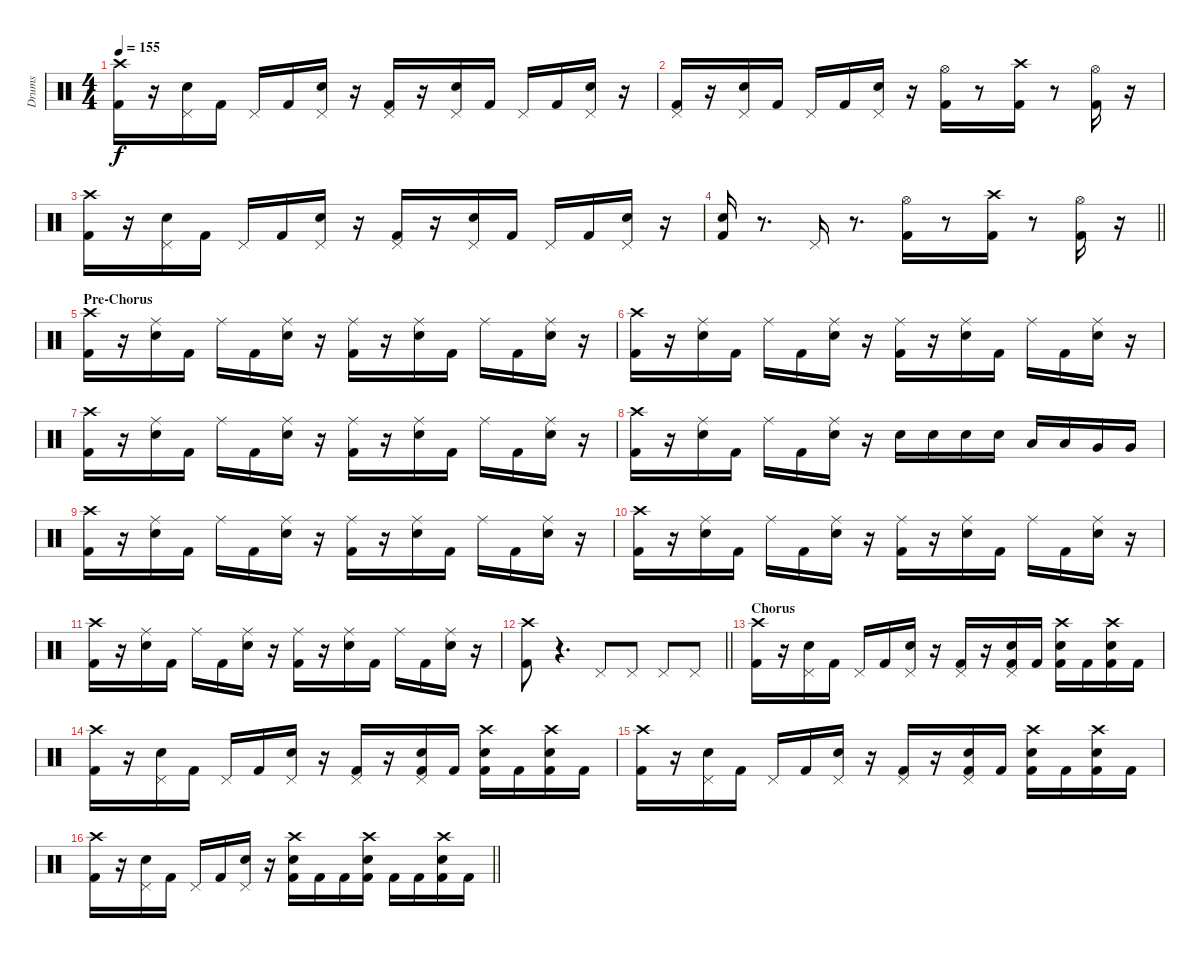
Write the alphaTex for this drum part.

\track ("Drums" "Drums") {instrument percussion}
\staff {score}
\articulation defaults
\ts (4 4)
\tempo 155
\clef neutral
\ks c
("Crash high (hit)" "Kick (hit) 2").16{dy f} r.16 ("Pedal Hi-Hat (hit)" "Snare (hit) 2").16 "Kick (hit) 2".16 "Pedal Hi-Hat (hit)".16 "Kick (hit) 2".16 ("Pedal Hi-Hat (hit)" "Snare (hit) 2").16 r.16 ("Pedal Hi-Hat (hit)" "Kick (hit) 2").16 r.16 ("Pedal Hi-Hat (hit)" "Snare (hit) 2").16 "Kick (hit) 2".16 "Pedal Hi-Hat (hit)".16 "Kick (hit) 2".16 ("Pedal Hi-Hat (hit)" "Snare (hit) 2").16 r.16 |
("Pedal Hi-Hat (hit)" "Kick (hit) 2").16 r.16 ("Pedal Hi-Hat (hit)" "Snare (hit) 2").16 "Kick (hit) 2".16 "Pedal Hi-Hat (hit)".16 "Kick (hit) 2".16 ("Pedal Hi-Hat (hit)" "Snare (hit) 2").16 r.16 ("Hi-Hat (open)" "Kick (hit) 2").16 r.8 ("Crash high (hit)" "Kick (hit) 2").16 r.8 ("Hi-Hat (open)" "Kick (hit) 2").16 r.16 |
("Crash high (hit)" "Kick (hit) 2").16 r.16 ("Pedal Hi-Hat (hit)" "Snare (hit) 2").16 "Kick (hit) 2".16 "Pedal Hi-Hat (hit)".16 "Kick (hit) 2".16 ("Pedal Hi-Hat (hit)" "Snare (hit) 2").16 r.16 ("Pedal Hi-Hat (hit)" "Kick (hit) 2").16 r.16 ("Pedal Hi-Hat (hit)" "Snare (hit) 2").16 "Kick (hit) 2".16 "Pedal Hi-Hat (hit)".16 "Kick (hit) 2".16 ("Pedal Hi-Hat (hit)" "Snare (hit) 2").16 r.16 |
\barLineRight lightlight
("Snare (hit) 2" "Kick (hit) 2").16 r.8{d} "Pedal Hi-Hat (hit)".16 r.8{d} ("Hi-Hat (open)" "Kick (hit) 2").16 r.8 ("Crash high (hit)" "Kick (hit) 2").16 r.8 ("Hi-Hat (open)" "Kick (hit) 2").16 r.16 |
\section ("" "Pre-Chorus")
("Crash high (hit)" "Kick (hit) 2").16 r.16 ("Ride (middle)" "Snare (hit) 2").16 "Kick (hit) 2".16 "Ride (middle)".16 "Kick (hit) 2".16 ("Ride (middle)" "Snare (hit) 2").16 r.16 ("Ride (middle)" "Kick (hit) 2").16 r.16 ("Ride (middle)" "Snare (hit) 2").16 "Kick (hit) 2".16 "Ride (middle)".16 "Kick (hit) 2".16 ("Ride (middle)" "Snare (hit) 2").16 r.16 |
("Crash high (hit)" "Kick (hit) 2").16 r.16 ("Ride (middle)" "Snare (hit) 2").16 "Kick (hit) 2".16 "Ride (middle)".16 "Kick (hit) 2".16 ("Ride (middle)" "Snare (hit) 2").16 r.16 ("Ride (middle)" "Kick (hit) 2").16 r.16 ("Ride (middle)" "Snare (hit) 2").16 "Kick (hit) 2".16 "Ride (middle)".16 "Kick (hit) 2".16 ("Ride (middle)" "Snare (hit) 2").16 r.16 |
("Crash high (hit)" "Kick (hit) 2").16 r.16 ("Ride (middle)" "Snare (hit) 2").16 "Kick (hit) 2".16 "Ride (middle)".16 "Kick (hit) 2".16 ("Ride (middle)" "Snare (hit) 2").16 r.16 ("Ride (middle)" "Kick (hit) 2").16 r.16 ("Ride (middle)" "Snare (hit) 2").16 "Kick (hit) 2".16 "Ride (middle)".16 "Kick (hit) 2".16 ("Ride (middle)" "Snare (hit) 2").16 r.16 |
("Crash high (hit)" "Kick (hit) 2").16 r.16 ("Ride (middle)" "Snare (hit) 2").16 "Kick (hit) 2".16 "Ride (middle)".16 "Kick (hit) 2".16 ("Ride (middle)" "Snare (hit) 2").16 r.16 "Snare (hit) 2".16 "Snare (hit) 2".16 "Snare (hit) 2".16 "Snare (hit) 2".16 "Low Tom (hit)".16 "Low Tom (hit)".16 "Very Low Tom (hit)".16 "Very Low Tom (hit)".16 |
("Crash high (hit)" "Kick (hit) 2").16 r.16 ("Ride (middle)" "Snare (hit) 2").16 "Kick (hit) 2".16 "Ride (middle)".16 "Kick (hit) 2".16 ("Ride (middle)" "Snare (hit) 2").16 r.16 ("Ride (middle)" "Kick (hit) 2").16 r.16 ("Ride (middle)" "Snare (hit) 2").16 "Kick (hit) 2".16 "Ride (middle)".16 "Kick (hit) 2".16 ("Ride (middle)" "Snare (hit) 2").16 r.16 |
("Crash high (hit)" "Kick (hit) 2").16 r.16 ("Ride (middle)" "Snare (hit) 2").16 "Kick (hit) 2".16 "Ride (middle)".16 "Kick (hit) 2".16 ("Ride (middle)" "Snare (hit) 2").16 r.16 ("Ride (middle)" "Kick (hit) 2").16 r.16 ("Ride (middle)" "Snare (hit) 2").16 "Kick (hit) 2".16 "Ride (middle)".16 "Kick (hit) 2".16 ("Ride (middle)" "Snare (hit) 2").16 r.16 |
("Crash high (hit)" "Kick (hit) 2").16 r.16 ("Ride (middle)" "Snare (hit) 2").16 "Kick (hit) 2".16 "Ride (middle)".16 "Kick (hit) 2".16 ("Ride (middle)" "Snare (hit) 2").16 r.16 ("Ride (middle)" "Kick (hit) 2").16 r.16 ("Ride (middle)" "Snare (hit) 2").16 "Kick (hit) 2".16 "Ride (middle)".16 "Kick (hit) 2".16 ("Ride (middle)" "Snare (hit) 2").16 r.16 |
\barLineRight lightlight
("Crash high (hit)" "Kick (hit) 2").8 r.4{d} "Pedal Hi-Hat (hit)".8 "Pedal Hi-Hat (hit)".8 "Pedal Hi-Hat (hit)".8 "Pedal Hi-Hat (hit)".8 |
\section ("" "Chorus")
("Crash high (hit)" "Kick (hit) 2").16 r.16 ("Pedal Hi-Hat (hit)" "Snare (hit) 2").16 "Kick (hit) 2".16 "Pedal Hi-Hat (hit)".16 "Kick (hit) 2".16 ("Pedal Hi-Hat (hit)" "Snare (hit) 2").16 r.16 ("Pedal Hi-Hat (hit)" "Kick (hit) 2").16 r.16 ("Pedal Hi-Hat (hit)" "Snare (hit) 2" "Kick (hit) 2").16 "Kick (hit) 2".16 ("Crash high (hit)" "Snare (hit) 2" "Kick (hit) 2").16 "Kick (hit) 2".16 ("Crash high (hit)" "Snare (hit) 2" "Kick (hit) 2").16 "Kick (hit) 2".16 |
("Crash high (hit)" "Kick (hit) 2").16 r.16 ("Pedal Hi-Hat (hit)" "Snare (hit) 2").16 "Kick (hit) 2".16 "Pedal Hi-Hat (hit)".16 "Kick (hit) 2".16 ("Pedal Hi-Hat (hit)" "Snare (hit) 2").16 r.16 ("Pedal Hi-Hat (hit)" "Kick (hit) 2").16 r.16 ("Pedal Hi-Hat (hit)" "Snare (hit) 2" "Kick (hit) 2").16 "Kick (hit) 2".16 ("Crash high (hit)" "Snare (hit) 2" "Kick (hit) 2").16 "Kick (hit) 2".16 ("Crash high (hit)" "Snare (hit) 2" "Kick (hit) 2").16 "Kick (hit) 2".16 |
("Crash high (hit)" "Kick (hit) 2").16 r.16 ("Pedal Hi-Hat (hit)" "Snare (hit) 2").16 "Kick (hit) 2".16 "Pedal Hi-Hat (hit)".16 "Kick (hit) 2".16 ("Pedal Hi-Hat (hit)" "Snare (hit) 2").16 r.16 ("Pedal Hi-Hat (hit)" "Kick (hit) 2").16 r.16 ("Pedal Hi-Hat (hit)" "Snare (hit) 2" "Kick (hit) 2").16 "Kick (hit) 2".16 ("Crash high (hit)" "Snare (hit) 2" "Kick (hit) 2").16 "Kick (hit) 2".16 ("Crash high (hit)" "Snare (hit) 2" "Kick (hit) 2").16 "Kick (hit) 2".16 |
\barLineRight lightlight
("Crash high (hit)" "Kick (hit) 2").16 r.16 ("Pedal Hi-Hat (hit)" "Snare (hit) 2").16 "Kick (hit) 2".16 "Pedal Hi-Hat (hit)".16 "Kick (hit) 2".16 ("Pedal Hi-Hat (hit)" "Snare (hit) 2").16 r.16 ("Crash high (hit)" "Snare (hit) 2" "Kick (hit) 2").16 "Kick (hit) 2".16 "Kick (hit) 2".16 ("Crash high (hit)" "Snare (hit) 2" "Kick (hit) 2").16 "Kick (hit) 2".16 "Kick (hit) 2".16 ("Crash high (hit)" "Snare (hit) 2" "Kick (hit) 2").16 "Kick (hit) 2".16
